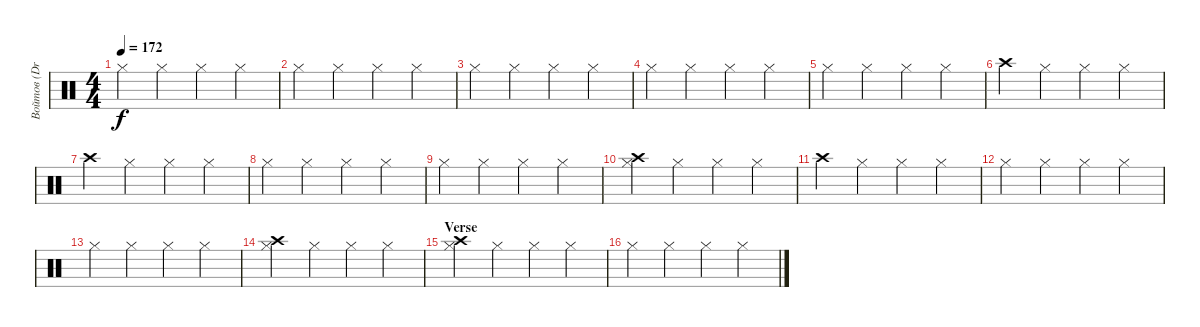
\track ("Войтов (Drums)" "Войтов (Dr") {instrument percussion}
\staff {score}
\articulation defaults
\ts (4 4)
\tempo 172
\clef neutral
\ks c "Hi-Hat (closed)".4{dy f} "Hi-Hat (closed)".4 "Hi-Hat (closed)".4 "Hi-Hat (closed)".4
|
"Hi-Hat (closed)".4 "Hi-Hat (closed)".4 "Hi-Hat (closed)".4 "Hi-Hat (closed)".4 |
"Hi-Hat (closed)".4 "Hi-Hat (closed)".4 "Hi-Hat (closed)".4 "Hi-Hat (closed)".4 |
"Hi-Hat (closed)".4 "Hi-Hat (closed)".4 "Hi-Hat (closed)".4 "Hi-Hat (closed)".4 |
"Hi-Hat (closed)".4 "Hi-Hat (closed)".4 "Hi-Hat (closed)".4 "Hi-Hat (closed)".4 |
"Crash high (hit)".4 "Hi-Hat (closed)".4 "Hi-Hat (closed)".4 "Hi-Hat (closed)".4 |
"Crash high (hit)".4 "Hi-Hat (closed)".4 "Hi-Hat (closed)".4 "Hi-Hat (closed)".4 |
"Hi-Hat (closed)".4 "Hi-Hat (closed)".4 "Hi-Hat (closed)".4 "Hi-Hat (closed)".4 |
"Hi-Hat (closed)".4 "Hi-Hat (closed)".4 "Hi-Hat (closed)".4 "Hi-Hat (closed)".4 |
("Crash high (hit)" "Hi-Hat (closed)").4 "Hi-Hat (closed)".4 "Hi-Hat (closed)".4 "Hi-Hat (closed)".4 |
"Crash high (hit)".4 "Hi-Hat (closed)".4 "Hi-Hat (closed)".4 "Hi-Hat (closed)".4 |
"Hi-Hat (closed)".4 "Hi-Hat (closed)".4 "Hi-Hat (closed)".4 "Hi-Hat (closed)".4 |
"Hi-Hat (closed)".4 "Hi-Hat (closed)".4 "Hi-Hat (closed)".4 "Hi-Hat (closed)".4 |
("Crash high (hit)" "Hi-Hat (closed)").4 "Hi-Hat (closed)".4 "Hi-Hat (closed)".4 "Hi-Hat (closed)".4 |
\section ("" "Verse")
("Crash high (hit)" "Hi-Hat (closed)").4 "Hi-Hat (closed)".4 "Hi-Hat (closed)".4 "Hi-Hat (closed)".4 |
"Hi-Hat (closed)".4 "Hi-Hat (closed)".4 "Hi-Hat (closed)".4 "Hi-Hat (closed)".4
